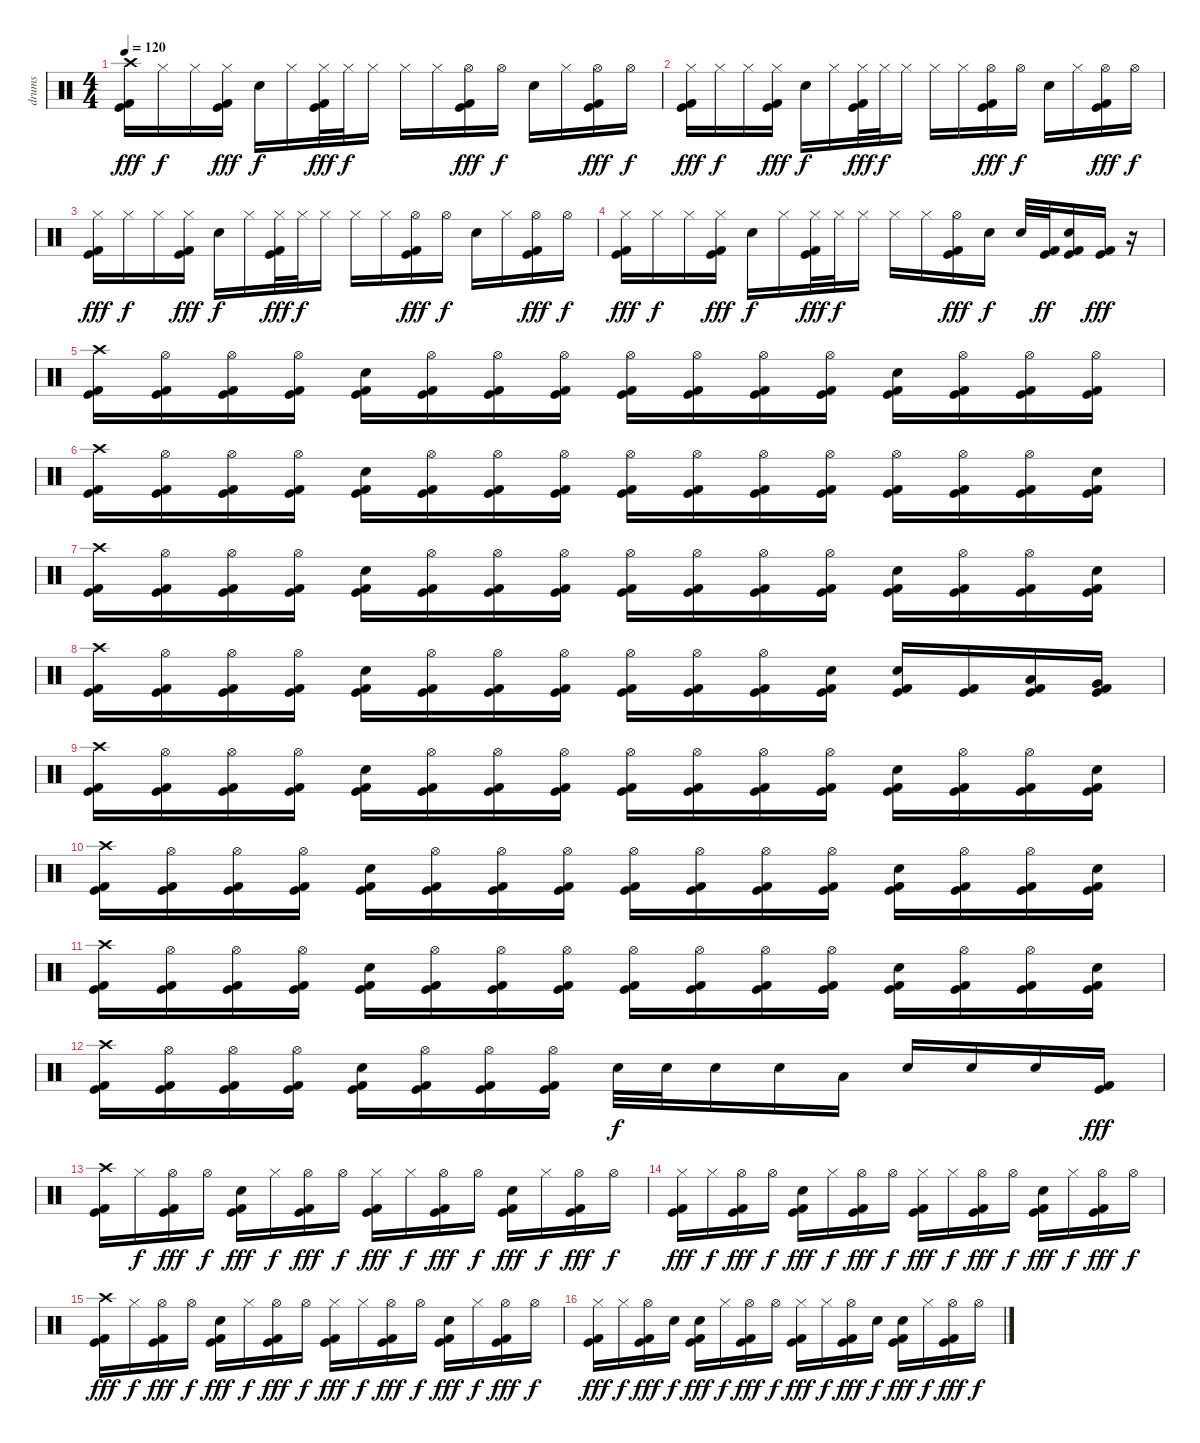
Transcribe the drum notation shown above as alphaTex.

\track ("drums" "drums") {instrument percussion}
\staff {score}
\articulation defaults
\ts (4 4)
\tempo 120
\clef neutral
\ks c
("Crash high (hit)" "Kick (hit)" "Kick (hit) 2").16{dy fff} "Hi-Hat (closed)".16{dy f} "Hi-Hat (closed)".16 ("Hi-Hat (closed)" "Kick (hit)" "Kick (hit) 2").16{dy fff} "Electric Snare (hit)".16{dy f} "Hi-Hat (closed)".16 ("Hi-Hat (closed)" "Kick (hit)" "Kick (hit) 2").32{dy fff} "Hi-Hat (closed)".32{dy f} "Hi-Hat (closed)".16 "Hi-Hat (closed)".16 "Hi-Hat (closed)".16 ("Hi-Hat (open)" "Kick (hit)" "Kick (hit) 2").16{dy fff} "Hi-Hat (open)".16{dy f} "Electric Snare (hit)".16 "Hi-Hat (closed)".16 ("Hi-Hat (open)" "Kick (hit)" "Kick (hit) 2").16{dy fff} "Hi-Hat (open)".16{dy f} |
("Hi-Hat (closed)" "Kick (hit)" "Kick (hit) 2").16{dy fff} "Hi-Hat (closed)".16{dy f} "Hi-Hat (closed)".16 ("Hi-Hat (closed)" "Kick (hit)" "Kick (hit) 2").16{dy fff} "Electric Snare (hit)".16{dy f} "Hi-Hat (closed)".16 ("Hi-Hat (closed)" "Kick (hit)" "Kick (hit) 2").32{dy fff} "Hi-Hat (closed)".32{dy f} "Hi-Hat (closed)".16 "Hi-Hat (closed)".16 "Hi-Hat (closed)".16 ("Hi-Hat (open)" "Kick (hit)" "Kick (hit) 2").16{dy fff} "Hi-Hat (open)".16{dy f} "Electric Snare (hit)".16 "Hi-Hat (closed)".16 ("Hi-Hat (open)" "Kick (hit)" "Kick (hit) 2").16{dy fff} "Hi-Hat (open)".16{dy f} |
("Hi-Hat (closed)" "Kick (hit)" "Kick (hit) 2").16{dy fff} "Hi-Hat (closed)".16{dy f} "Hi-Hat (closed)".16 ("Hi-Hat (closed)" "Kick (hit)" "Kick (hit) 2").16{dy fff} "Electric Snare (hit)".16{dy f} "Hi-Hat (closed)".16 ("Hi-Hat (closed)" "Kick (hit)" "Kick (hit) 2").32{dy fff} "Hi-Hat (closed)".32{dy f} "Hi-Hat (closed)".16 "Hi-Hat (closed)".16 "Hi-Hat (closed)".16 ("Hi-Hat (open)" "Kick (hit)" "Kick (hit) 2").16{dy fff} "Hi-Hat (open)".16{dy f} "Electric Snare (hit)".16 "Hi-Hat (closed)".16 ("Hi-Hat (open)" "Kick (hit)" "Kick (hit) 2").16{dy fff} "Hi-Hat (open)".16{dy f} |
("Hi-Hat (closed)" "Kick (hit)" "Kick (hit) 2").16{dy fff} "Hi-Hat (closed)".16{dy f} "Hi-Hat (closed)".16 ("Hi-Hat (closed)" "Kick (hit)" "Kick (hit) 2").16{dy fff} "Electric Snare (hit)".16{dy f} "Hi-Hat (closed)".16 ("Hi-Hat (closed)" "Kick (hit)" "Kick (hit) 2").32{dy fff} "Hi-Hat (closed)".32{dy f} "Hi-Hat (closed)".16 "Hi-Hat (closed)".16 "Hi-Hat (closed)".16 ("Hi-Hat (open)" "Kick (hit)" "Kick (hit) 2").16{dy fff} "Electric Snare (hit)".16{dy f} "Electric Snare (hit)".32 ("Kick (hit)" "Kick (hit) 2").32{dy ff} ("Electric Snare (hit)" "Kick (hit)" "Kick (hit) 2").16 ("Kick (hit)" "Kick (hit) 2").16{dy fff} r.16 |
("Crash high (hit)" "Kick (hit)" "Kick (hit) 2").16 ("Hi-Hat (open)" "Kick (hit)" "Kick (hit) 2").16 ("Hi-Hat (open)" "Kick (hit)" "Kick (hit) 2").16 ("Hi-Hat (open)" "Kick (hit)" "Kick (hit) 2").16 ("Electric Snare (hit)" "Kick (hit)" "Kick (hit) 2").16 ("Hi-Hat (open)" "Kick (hit)" "Kick (hit) 2").16 ("Hi-Hat (open)" "Kick (hit)" "Kick (hit) 2").16 ("Hi-Hat (open)" "Kick (hit)" "Kick (hit) 2").16 ("Hi-Hat (open)" "Kick (hit)" "Kick (hit) 2").16 ("Hi-Hat (open)" "Kick (hit)" "Kick (hit) 2").16 ("Hi-Hat (open)" "Kick (hit)" "Kick (hit) 2").16 ("Hi-Hat (open)" "Kick (hit)" "Kick (hit) 2").16 ("Electric Snare (hit)" "Kick (hit)" "Kick (hit) 2").16 ("Hi-Hat (open)" "Kick (hit)" "Kick (hit) 2").16 ("Hi-Hat (open)" "Kick (hit)" "Kick (hit) 2").16 ("Hi-Hat (open)" "Kick (hit)" "Kick (hit) 2").16 |
("Crash high (hit)" "Kick (hit)" "Kick (hit) 2").16 ("Hi-Hat (open)" "Kick (hit)" "Kick (hit) 2").16 ("Hi-Hat (open)" "Kick (hit)" "Kick (hit) 2").16 ("Hi-Hat (open)" "Kick (hit)" "Kick (hit) 2").16 ("Electric Snare (hit)" "Kick (hit)" "Kick (hit) 2").16 ("Hi-Hat (open)" "Kick (hit)" "Kick (hit) 2").16 ("Hi-Hat (open)" "Kick (hit)" "Kick (hit) 2").16 ("Hi-Hat (open)" "Kick (hit)" "Kick (hit) 2").16 ("Hi-Hat (open)" "Kick (hit)" "Kick (hit) 2").16 ("Hi-Hat (open)" "Kick (hit)" "Kick (hit) 2").16 ("Hi-Hat (open)" "Kick (hit)" "Kick (hit) 2").16 ("Hi-Hat (open)" "Kick (hit)" "Kick (hit) 2").16 ("Hi-Hat (open)" "Kick (hit)" "Kick (hit) 2").16 ("Hi-Hat (open)" "Kick (hit)" "Kick (hit) 2").16 ("Hi-Hat (open)" "Kick (hit)" "Kick (hit) 2").16 ("Electric Snare (hit)" "Kick (hit)" "Kick (hit) 2").16 |
("Crash high (hit)" "Kick (hit)" "Kick (hit) 2").16 ("Hi-Hat (open)" "Kick (hit)" "Kick (hit) 2").16 ("Hi-Hat (open)" "Kick (hit)" "Kick (hit) 2").16 ("Hi-Hat (open)" "Kick (hit)" "Kick (hit) 2").16 ("Electric Snare (hit)" "Kick (hit)" "Kick (hit) 2").16 ("Hi-Hat (open)" "Kick (hit)" "Kick (hit) 2").16 ("Hi-Hat (open)" "Kick (hit)" "Kick (hit) 2").16 ("Hi-Hat (open)" "Kick (hit)" "Kick (hit) 2").16 ("Hi-Hat (open)" "Kick (hit)" "Kick (hit) 2").16 ("Hi-Hat (open)" "Kick (hit)" "Kick (hit) 2").16 ("Hi-Hat (open)" "Kick (hit)" "Kick (hit) 2").16 ("Hi-Hat (open)" "Kick (hit)" "Kick (hit) 2").16 ("Electric Snare (hit)" "Kick (hit)" "Kick (hit) 2").16 ("Hi-Hat (open)" "Kick (hit)" "Kick (hit) 2").16 ("Hi-Hat (open)" "Kick (hit)" "Kick (hit) 2").16 ("Electric Snare (hit)" "Kick (hit)" "Kick (hit) 2").16 |
("Crash high (hit)" "Kick (hit)" "Kick (hit) 2").16 ("Hi-Hat (open)" "Kick (hit)" "Kick (hit) 2").16 ("Hi-Hat (open)" "Kick (hit)" "Kick (hit) 2").16 ("Hi-Hat (open)" "Kick (hit)" "Kick (hit) 2").16 ("Electric Snare (hit)" "Kick (hit)" "Kick (hit) 2").16 ("Hi-Hat (open)" "Kick (hit)" "Kick (hit) 2").16 ("Hi-Hat (open)" "Kick (hit)" "Kick (hit) 2").16 ("Hi-Hat (open)" "Kick (hit)" "Kick (hit) 2").16 ("Hi-Hat (open)" "Kick (hit)" "Kick (hit) 2").16 ("Hi-Hat (open)" "Kick (hit)" "Kick (hit) 2").16 ("Hi-Hat (open)" "Kick (hit)" "Kick (hit) 2").16 ("Electric Snare (hit)" "Kick (hit)" "Kick (hit) 2").16 ("Electric Snare (hit)" "Kick (hit)" "Kick (hit) 2").16 ("Kick (hit)" "Kick (hit) 2").16 ("Low Tom (hit)" "Kick (hit)" "Kick (hit) 2").16 ("Very Low Tom (hit)" "Kick (hit)" "Kick (hit) 2").16 |
("Crash high (hit)" "Kick (hit)" "Kick (hit) 2").16 ("Hi-Hat (open)" "Kick (hit)" "Kick (hit) 2").16 ("Hi-Hat (open)" "Kick (hit)" "Kick (hit) 2").16 ("Hi-Hat (open)" "Kick (hit)" "Kick (hit) 2").16 ("Electric Snare (hit)" "Kick (hit)" "Kick (hit) 2").16 ("Hi-Hat (open)" "Kick (hit)" "Kick (hit) 2").16 ("Hi-Hat (open)" "Kick (hit)" "Kick (hit) 2").16 ("Hi-Hat (open)" "Kick (hit)" "Kick (hit) 2").16 ("Hi-Hat (open)" "Kick (hit)" "Kick (hit) 2").16 ("Hi-Hat (open)" "Kick (hit)" "Kick (hit) 2").16 ("Hi-Hat (open)" "Kick (hit)" "Kick (hit) 2").16 ("Hi-Hat (open)" "Kick (hit)" "Kick (hit) 2").16 ("Electric Snare (hit)" "Kick (hit)" "Kick (hit) 2").16 ("Hi-Hat (open)" "Kick (hit)" "Kick (hit) 2").16 ("Hi-Hat (open)" "Kick (hit)" "Kick (hit) 2").16 ("Electric Snare (hit)" "Kick (hit)" "Kick (hit) 2").16 |
("Crash high (hit)" "Kick (hit)" "Kick (hit) 2").16 ("Hi-Hat (open)" "Kick (hit)" "Kick (hit) 2").16 ("Hi-Hat (open)" "Kick (hit)" "Kick (hit) 2").16 ("Hi-Hat (open)" "Kick (hit)" "Kick (hit) 2").16 ("Electric Snare (hit)" "Kick (hit)" "Kick (hit) 2").16 ("Hi-Hat (open)" "Kick (hit)" "Kick (hit) 2").16 ("Hi-Hat (open)" "Kick (hit)" "Kick (hit) 2").16 ("Hi-Hat (open)" "Kick (hit)" "Kick (hit) 2").16 ("Hi-Hat (open)" "Kick (hit)" "Kick (hit) 2").16 ("Hi-Hat (open)" "Kick (hit)" "Kick (hit) 2").16 ("Hi-Hat (open)" "Kick (hit)" "Kick (hit) 2").16 ("Hi-Hat (open)" "Kick (hit)" "Kick (hit) 2").16 ("Electric Snare (hit)" "Kick (hit)" "Kick (hit) 2").16 ("Hi-Hat (open)" "Kick (hit)" "Kick (hit) 2").16 ("Hi-Hat (open)" "Kick (hit)" "Kick (hit) 2").16 ("Electric Snare (hit)" "Kick (hit)" "Kick (hit) 2").16 |
("Crash high (hit)" "Kick (hit)" "Kick (hit) 2").16 ("Hi-Hat (open)" "Kick (hit)" "Kick (hit) 2").16 ("Hi-Hat (open)" "Kick (hit)" "Kick (hit) 2").16 ("Hi-Hat (open)" "Kick (hit)" "Kick (hit) 2").16 ("Electric Snare (hit)" "Kick (hit)" "Kick (hit) 2").16 ("Hi-Hat (open)" "Kick (hit)" "Kick (hit) 2").16 ("Hi-Hat (open)" "Kick (hit)" "Kick (hit) 2").16 ("Hi-Hat (open)" "Kick (hit)" "Kick (hit) 2").16 ("Hi-Hat (open)" "Kick (hit)" "Kick (hit) 2").16 ("Hi-Hat (open)" "Kick (hit)" "Kick (hit) 2").16 ("Hi-Hat (open)" "Kick (hit)" "Kick (hit) 2").16 ("Hi-Hat (open)" "Kick (hit)" "Kick (hit) 2").16 ("Electric Snare (hit)" "Kick (hit)" "Kick (hit) 2").16 ("Hi-Hat (open)" "Kick (hit)" "Kick (hit) 2").16 ("Hi-Hat (open)" "Kick (hit)" "Kick (hit) 2").16 ("Electric Snare (hit)" "Kick (hit)" "Kick (hit) 2").16 |
("Crash high (hit)" "Kick (hit)" "Kick (hit) 2").16 ("Hi-Hat (open)" "Kick (hit)" "Kick (hit) 2").16 ("Hi-Hat (open)" "Kick (hit)" "Kick (hit) 2").16 ("Hi-Hat (open)" "Kick (hit)" "Kick (hit) 2").16 ("Electric Snare (hit)" "Kick (hit)" "Kick (hit) 2").16 ("Hi-Hat (open)" "Kick (hit)" "Kick (hit) 2").16 ("Hi-Hat (open)" "Kick (hit)" "Kick (hit) 2").16 ("Hi-Hat (open)" "Kick (hit)" "Kick (hit) 2").16 "Electric Snare (hit)".32{dy f} "Electric Snare (hit)".32 "Electric Snare (hit)".16 "Electric Snare (hit)".16 "Low Floor Tom (hit)".16 "Electric Snare (hit)".16 "Electric Snare (hit)".16 "Electric Snare (hit)".16 ("Kick (hit)" "Kick (hit) 2").16{dy fff} |
("Crash high (hit)" "Kick (hit)" "Kick (hit) 2").16 "Hi-Hat (closed)".16{dy f} ("Hi-Hat (open)" "Kick (hit)" "Kick (hit) 2").16{dy fff} "Hi-Hat (open)".16{dy f} ("Electric Snare (hit)" "Kick (hit)" "Kick (hit) 2").16{dy fff} "Hi-Hat (closed)".16{dy f} ("Hi-Hat (open)" "Kick (hit)" "Kick (hit) 2").16{dy fff} "Hi-Hat (open)".16{dy f} ("Hi-Hat (closed)" "Kick (hit)" "Kick (hit) 2").16{dy fff} "Hi-Hat (closed)".16{dy f} ("Hi-Hat (open)" "Kick (hit)" "Kick (hit) 2").16{dy fff} "Hi-Hat (open)".16{dy f} ("Electric Snare (hit)" "Kick (hit)" "Kick (hit) 2").16{dy fff} "Hi-Hat (closed)".16{dy f} ("Hi-Hat (open)" "Kick (hit)" "Kick (hit) 2").16{dy fff} "Hi-Hat (open)".16{dy f} |
("Hi-Hat (closed)" "Kick (hit)" "Kick (hit) 2").16{dy fff} "Hi-Hat (closed)".16{dy f} ("Hi-Hat (open)" "Kick (hit)" "Kick (hit) 2").16{dy fff} "Hi-Hat (open)".16{dy f} ("Electric Snare (hit)" "Kick (hit)" "Kick (hit) 2").16{dy fff} "Hi-Hat (closed)".16{dy f} ("Hi-Hat (open)" "Kick (hit)" "Kick (hit) 2").16{dy fff} "Hi-Hat (open)".16{dy f} ("Hi-Hat (closed)" "Kick (hit)" "Kick (hit) 2").16{dy fff} "Hi-Hat (closed)".16{dy f} ("Hi-Hat (open)" "Kick (hit)" "Kick (hit) 2").16{dy fff} "Hi-Hat (open)".16{dy f} ("Electric Snare (hit)" "Kick (hit)" "Kick (hit) 2").16{dy fff} "Hi-Hat (closed)".16{dy f} ("Hi-Hat (open)" "Kick (hit)" "Kick (hit) 2").16{dy fff} "Hi-Hat (open)".16{dy f} |
("Crash high (hit)" "Kick (hit)" "Kick (hit) 2").16{dy fff} "Hi-Hat (closed)".16{dy f} ("Hi-Hat (open)" "Kick (hit)" "Kick (hit) 2").16{dy fff} "Hi-Hat (open)".16{dy f} ("Electric Snare (hit)" "Kick (hit)" "Kick (hit) 2").16{dy fff} "Hi-Hat (closed)".16{dy f} ("Hi-Hat (open)" "Kick (hit)" "Kick (hit) 2").16{dy fff} "Hi-Hat (open)".16{dy f} ("Hi-Hat (closed)" "Kick (hit)" "Kick (hit) 2").16{dy fff} "Hi-Hat (closed)".16{dy f} ("Hi-Hat (open)" "Kick (hit)" "Kick (hit) 2").16{dy fff} "Hi-Hat (open)".16{dy f} ("Electric Snare (hit)" "Kick (hit)" "Kick (hit) 2").16{dy fff} "Hi-Hat (closed)".16{dy f} ("Hi-Hat (open)" "Kick (hit)" "Kick (hit) 2").16{dy fff} "Hi-Hat (open)".16{dy f} |
("Hi-Hat (closed)" "Kick (hit)" "Kick (hit) 2").16{dy fff} "Hi-Hat (closed)".16{dy f} ("Hi-Hat (open)" "Kick (hit)" "Kick (hit) 2").16{dy fff} "Electric Snare (hit)".16{dy f} ("Electric Snare (hit)" "Kick (hit)" "Kick (hit) 2").16{dy fff} "Hi-Hat (closed)".16{dy f} ("Hi-Hat (open)" "Kick (hit)" "Kick (hit) 2").16{dy fff} "Hi-Hat (open)".16{dy f} ("Hi-Hat (closed)" "Kick (hit)" "Kick (hit) 2").16{dy fff} "Hi-Hat (closed)".16{dy f} ("Hi-Hat (open)" "Kick (hit)" "Kick (hit) 2").16{dy fff} "Electric Snare (hit)".16{dy f} ("Electric Snare (hit)" "Kick (hit)" "Kick (hit) 2").16{dy fff} "Hi-Hat (closed)".16{dy f} ("Hi-Hat (open)" "Kick (hit)" "Kick (hit) 2").16{dy fff} "Hi-Hat (open)".16{dy f}
